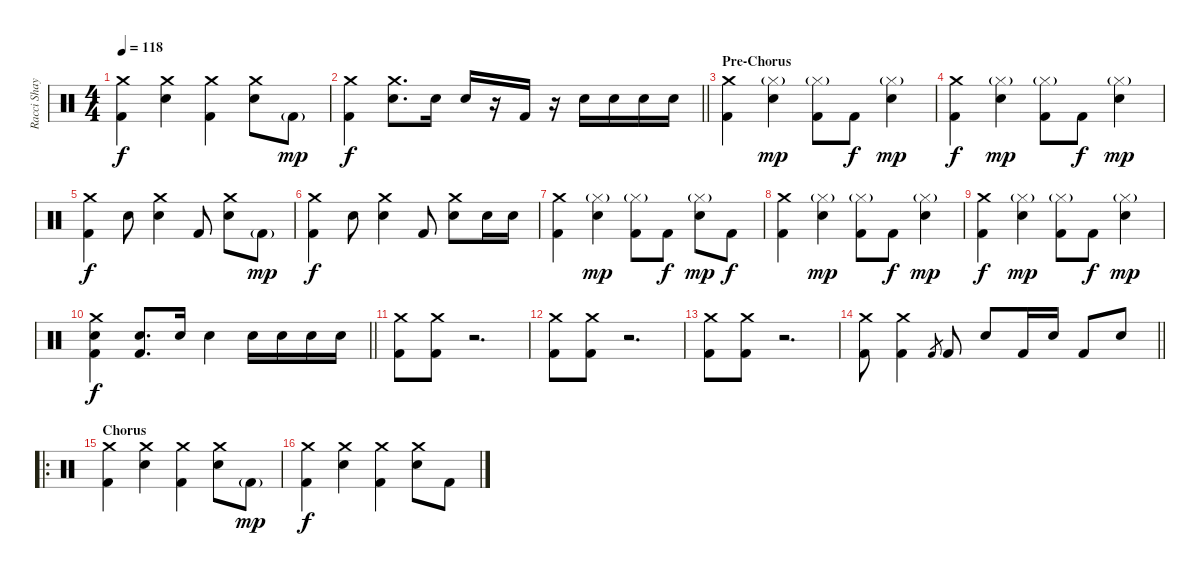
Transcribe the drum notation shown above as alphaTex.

\track ("Racci Shay" "Racci Shay") {instrument percussion}
\staff {score}
\articulation defaults
\ts (4 4)
\tempo 118
\clef neutral
\ks c
("Crash medium (hit)" "Kick (hit) 2").4{dy f} ("Crash medium (hit)" "Electric Snare (hit)").4 ("Crash medium (hit)" "Kick (hit) 2").4 ("Crash medium (hit)" "Electric Snare (hit)").8 "Kick (hit) 2"{g}.8{dy mp} |
\barLineRight lightlight
("Crash medium (hit)" "Kick (hit) 2").4{dy f} ("Crash medium (hit)" "Electric Snare (hit)").8{d} "Electric Snare (hit)".16 "Electric Snare (hit)".16 r.16 "Kick (hit) 2".16 r.16 "Electric Snare (hit)".16 "Electric Snare (hit)".16 "Electric Snare (hit)".16 "Electric Snare (hit)".16 |
\section ("" "Pre-Chorus")
("Crash medium (hit)" "Kick (hit) 2").4 ("Hi-Hat (closed)"{g} "Electric Snare (hit)").4{dy mp} ("Hi-Hat (closed)"{g} "Kick (hit) 2").8 "Kick (hit) 2".8{dy f} ("Hi-Hat (closed)"{g} "Electric Snare (hit)").4{dy mp} |
("Crash medium (hit)" "Kick (hit) 2").4{dy f} ("Hi-Hat (closed)"{g} "Electric Snare (hit)").4{dy mp} ("Hi-Hat (closed)"{g} "Kick (hit) 2").8 "Kick (hit) 2".8{dy f} ("Hi-Hat (closed)"{g} "Electric Snare (hit)").4{dy mp} |
("Crash medium (hit)" "Kick (hit) 2").4{dy f} "Electric Snare (hit)".8 ("Crash medium (hit)" "Electric Snare (hit)").4 "Kick (hit) 2".8 ("Crash medium (hit)" "Electric Snare (hit)").8 "Kick (hit) 2"{g}.8{dy mp} |
("Crash medium (hit)" "Kick (hit) 2").4{dy f} "Electric Snare (hit)".8 ("Crash medium (hit)" "Electric Snare (hit)").4 "Kick (hit) 2".8 ("Crash medium (hit)" "Electric Snare (hit)").8 "Electric Snare (hit)".16 "Electric Snare (hit)".16 |
("Crash medium (hit)" "Kick (hit) 2").4 ("Hi-Hat (closed)"{g} "Electric Snare (hit)").4{dy mp} ("Hi-Hat (closed)"{g} "Kick (hit) 2").8 "Kick (hit) 2".8{dy f} ("Hi-Hat (closed)"{g} "Electric Snare (hit)").8{dy mp} "Kick (hit) 2".8{dy f} |
("Crash medium (hit)" "Kick (hit) 2").4 ("Hi-Hat (closed)"{g} "Electric Snare (hit)").4{dy mp} ("Hi-Hat (closed)"{g} "Kick (hit) 2").8 "Kick (hit) 2".8{dy f} ("Hi-Hat (closed)"{g} "Electric Snare (hit)").4{dy mp} |
("Crash medium (hit)" "Kick (hit) 2").4{dy f} ("Hi-Hat (closed)"{g} "Electric Snare (hit)").4{dy mp} ("Hi-Hat (closed)"{g} "Kick (hit) 2").8 "Kick (hit) 2".8{dy f} ("Hi-Hat (closed)"{g} "Electric Snare (hit)").4{dy mp} |
\barLineRight lightlight
("Crash medium (hit)" "Electric Snare (hit)" "Kick (hit) 2").4{dy f} ("Electric Snare (hit)" "Kick (hit) 2").8{d} "Electric Snare (hit)".16 "Electric Snare (hit)".4 "Electric Snare (hit)".16 "Electric Snare (hit)".16 "Electric Snare (hit)".16 "Electric Snare (hit)".16 |
("Crash medium (hit)" "Kick (hit) 2").8 ("Crash medium (hit)" "Kick (hit) 2").8 r.2{d} |
("Crash medium (hit)" "Kick (hit) 2").8 ("Crash medium (hit)" "Kick (hit) 2").8 r.2{d} |
("Crash medium (hit)" "Kick (hit) 2").8 ("Crash medium (hit)" "Kick (hit) 2").8 r.2{d} |
\barLineRight lightlight
("Crash medium (hit)" "Kick (hit) 2").8 ("Crash medium (hit)" "Kick (hit) 2").4 "Kick (hit) 2".8{gr} "Kick (hit) 2".8 "Electric Snare (hit)".8 "Kick (hit) 2".16 "Electric Snare (hit)".16 "Kick (hit) 2".8 "Electric Snare (hit)".8 |
\ro
\section ("" "Chorus")
("Crash medium (hit)" "Kick (hit) 2").4 ("Crash medium (hit)" "Electric Snare (hit)").4 ("Crash medium (hit)" "Kick (hit) 2").4 ("Crash medium (hit)" "Electric Snare (hit)").8 "Kick (hit) 2"{g}.8{dy mp} |
("Crash medium (hit)" "Kick (hit) 2").4{dy f} ("Crash medium (hit)" "Electric Snare (hit)").4 ("Crash medium (hit)" "Kick (hit) 2").4 ("Crash medium (hit)" "Electric Snare (hit)").8 "Kick (hit) 2".8
